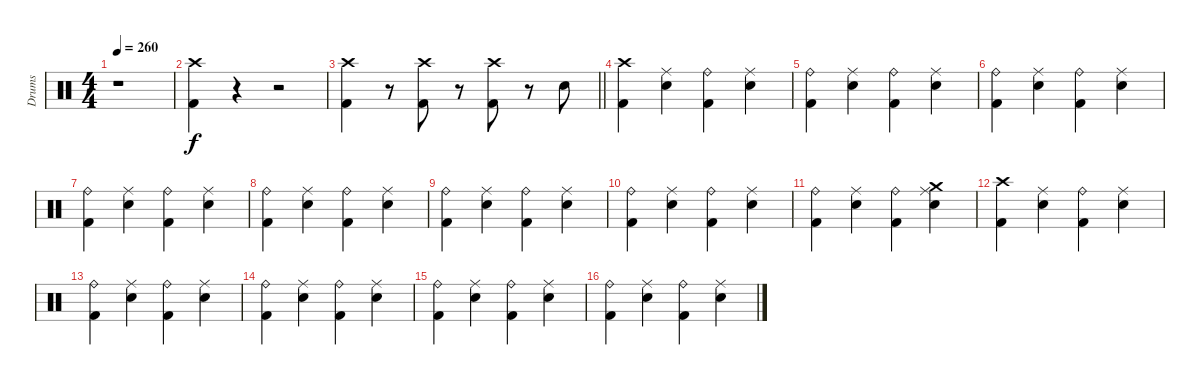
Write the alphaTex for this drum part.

\track ("Drums" "Drums") {instrument percussion}
\staff {score}
\articulation defaults
\ts (4 4)
\tempo 260
\clef neutral
\ks c
r.1{dy f} |
("Crash high (hit)" "Kick (hit) 2").4 r.4 r.2 |
\barLineRight lightlight
("Crash high (hit)" "Kick (hit) 2").4 r.8 ("Crash high (hit)" "Kick (hit) 2").8 r.8 ("Crash high (hit)" "Kick (hit) 2").8 r.8 "Electric Snare (hit)".8 |
("Crash high (hit)" "Kick (hit) 2").4 ("Ride (middle)" "Electric Snare (hit)").4 ("Ride (bell)" "Kick (hit) 2").4 ("Ride (middle)" "Electric Snare (hit)").4 |
("Ride (bell)" "Kick (hit) 2").4 ("Ride (middle)" "Electric Snare (hit)").4 ("Ride (bell)" "Kick (hit) 2").4 ("Ride (middle)" "Electric Snare (hit)").4 |
("Ride (bell)" "Kick (hit) 2").4 ("Ride (middle)" "Electric Snare (hit)").4 ("Ride (bell)" "Kick (hit) 2").4 ("Ride (middle)" "Electric Snare (hit)").4 |
("Ride (bell)" "Kick (hit) 2").4 ("Ride (middle)" "Electric Snare (hit)").4 ("Ride (bell)" "Kick (hit) 2").4 ("Ride (middle)" "Electric Snare (hit)").4 |
("Ride (bell)" "Kick (hit) 2").4 ("Ride (middle)" "Electric Snare (hit)").4 ("Ride (bell)" "Kick (hit) 2").4 ("Ride (middle)" "Electric Snare (hit)").4 |
("Ride (bell)" "Kick (hit) 2").4 ("Ride (middle)" "Electric Snare (hit)").4 ("Ride (bell)" "Kick (hit) 2").4 ("Ride (middle)" "Electric Snare (hit)").4 |
("Ride (bell)" "Kick (hit) 2").4 ("Ride (middle)" "Electric Snare (hit)").4 ("Ride (bell)" "Kick (hit) 2").4 ("Ride (middle)" "Electric Snare (hit)").4 |
("Ride (bell)" "Kick (hit) 2").4 ("Ride (middle)" "Electric Snare (hit)").4 ("Ride (bell)" "Kick (hit) 2").4 ("Crash medium (hit)" "Ride (middle)" "Electric Snare (hit)").4 |
("Crash high (hit)" "Kick (hit) 2").4 ("Ride (middle)" "Electric Snare (hit)").4 ("Ride (bell)" "Kick (hit) 2").4 ("Ride (middle)" "Electric Snare (hit)").4 |
("Ride (bell)" "Kick (hit) 2").4 ("Ride (middle)" "Electric Snare (hit)").4 ("Ride (bell)" "Kick (hit) 2").4 ("Ride (middle)" "Electric Snare (hit)").4 |
("Ride (bell)" "Kick (hit) 2").4 ("Ride (middle)" "Electric Snare (hit)").4 ("Ride (bell)" "Kick (hit) 2").4 ("Ride (middle)" "Electric Snare (hit)").4 |
("Ride (bell)" "Kick (hit) 2").4 ("Ride (middle)" "Electric Snare (hit)").4 ("Ride (bell)" "Kick (hit) 2").4 ("Ride (middle)" "Electric Snare (hit)").4 |
("Ride (bell)" "Kick (hit) 2").4 ("Ride (middle)" "Electric Snare (hit)").4 ("Ride (bell)" "Kick (hit) 2").4 ("Ride (middle)" "Electric Snare (hit)").4
